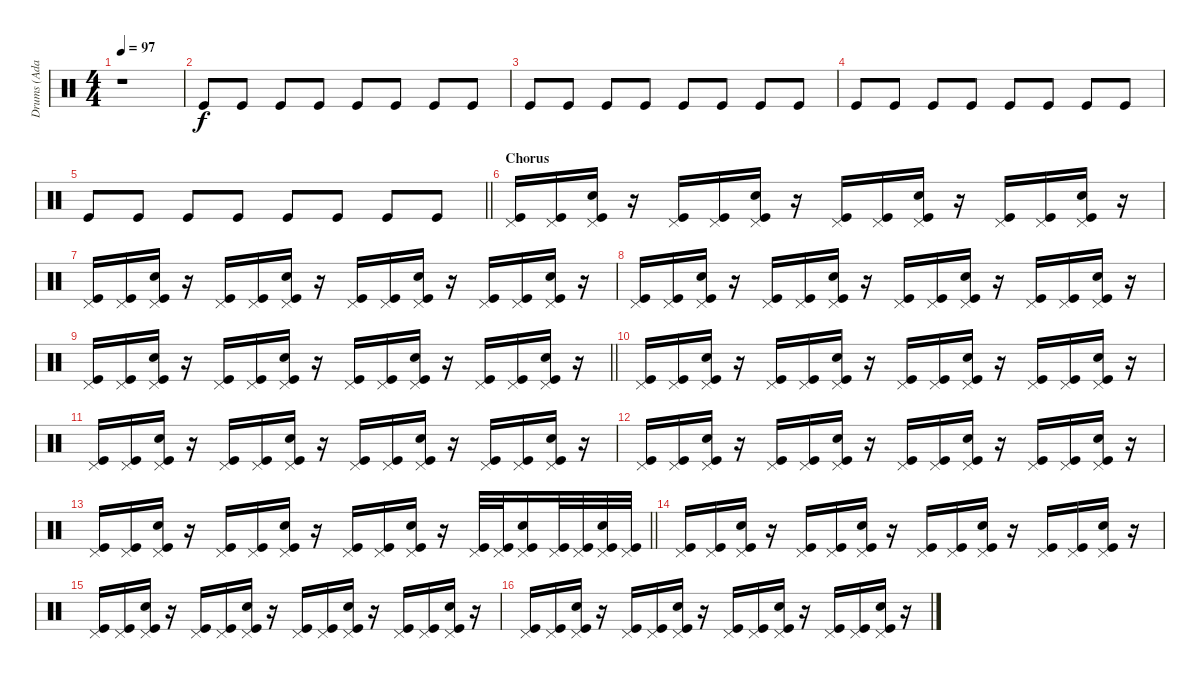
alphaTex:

\track ("Drums (Adam)" "Drums (Ada") {instrument percussion}
\staff {score}
\articulation defaults
\ts (4 4)
\tempo 97
\clef neutral
\ks c
r.1{dy f} |
"Kick (hit)".8 "Kick (hit)".8 "Kick (hit)".8 "Kick (hit)".8 "Kick (hit)".8 "Kick (hit)".8 "Kick (hit)".8 "Kick (hit)".8 |
"Kick (hit)".8 "Kick (hit)".8 "Kick (hit)".8 "Kick (hit)".8 "Kick (hit)".8 "Kick (hit)".8 "Kick (hit)".8 "Kick (hit)".8 |
"Kick (hit)".8 "Kick (hit)".8 "Kick (hit)".8 "Kick (hit)".8 "Kick (hit)".8 "Kick (hit)".8 "Kick (hit)".8 "Kick (hit)".8 |
\barLineRight lightlight "Kick (hit)".8 "Kick (hit)".8 "Kick (hit)".8 "Kick (hit)".8 "Kick (hit)".8 "Kick (hit)".8 "Kick (hit)".8 "Kick (hit)".8
|
\section ("" "Chorus")
("Kick (hit)" "Pedal Hi-Hat (hit)").16 ("Kick (hit)" "Pedal Hi-Hat (hit)").16 ("Kick (hit)" "Pedal Hi-Hat (hit)" "Snare (hit) 2").16 r.16 ("Kick (hit)" "Pedal Hi-Hat (hit)").16 ("Kick (hit)" "Pedal Hi-Hat (hit)").16 ("Kick (hit)" "Pedal Hi-Hat (hit)" "Snare (hit) 2").16 r.16 ("Kick (hit)" "Pedal Hi-Hat (hit)").16 ("Kick (hit)" "Pedal Hi-Hat (hit)").16 ("Kick (hit)" "Pedal Hi-Hat (hit)" "Snare (hit) 2").16 r.16 ("Kick (hit)" "Pedal Hi-Hat (hit)").16 ("Kick (hit)" "Pedal Hi-Hat (hit)").16 ("Kick (hit)" "Pedal Hi-Hat (hit)" "Snare (hit) 2").16 r.16 |
("Kick (hit)" "Pedal Hi-Hat (hit)").16 ("Kick (hit)" "Pedal Hi-Hat (hit)").16 ("Kick (hit)" "Pedal Hi-Hat (hit)" "Snare (hit) 2").16 r.16 ("Kick (hit)" "Pedal Hi-Hat (hit)").16 ("Kick (hit)" "Pedal Hi-Hat (hit)").16 ("Kick (hit)" "Pedal Hi-Hat (hit)" "Snare (hit) 2").16 r.16 ("Kick (hit)" "Pedal Hi-Hat (hit)").16 ("Kick (hit)" "Pedal Hi-Hat (hit)").16 ("Kick (hit)" "Pedal Hi-Hat (hit)" "Snare (hit) 2").16 r.16 ("Kick (hit)" "Pedal Hi-Hat (hit)").16 ("Kick (hit)" "Pedal Hi-Hat (hit)").16 ("Kick (hit)" "Pedal Hi-Hat (hit)" "Snare (hit) 2").16 r.16 |
("Kick (hit)" "Pedal Hi-Hat (hit)").16 ("Kick (hit)" "Pedal Hi-Hat (hit)").16 ("Kick (hit)" "Pedal Hi-Hat (hit)" "Snare (hit) 2").16 r.16 ("Kick (hit)" "Pedal Hi-Hat (hit)").16 ("Kick (hit)" "Pedal Hi-Hat (hit)").16 ("Kick (hit)" "Pedal Hi-Hat (hit)" "Snare (hit) 2").16 r.16 ("Kick (hit)" "Pedal Hi-Hat (hit)").16 ("Kick (hit)" "Pedal Hi-Hat (hit)").16 ("Kick (hit)" "Pedal Hi-Hat (hit)" "Snare (hit) 2").16 r.16 ("Kick (hit)" "Pedal Hi-Hat (hit)").16 ("Kick (hit)" "Pedal Hi-Hat (hit)").16 ("Kick (hit)" "Pedal Hi-Hat (hit)" "Snare (hit) 2").16 r.16 |
\barLineRight lightlight
("Kick (hit)" "Pedal Hi-Hat (hit)").16 ("Kick (hit)" "Pedal Hi-Hat (hit)").16 ("Kick (hit)" "Pedal Hi-Hat (hit)" "Snare (hit) 2").16 r.16 ("Kick (hit)" "Pedal Hi-Hat (hit)").16 ("Kick (hit)" "Pedal Hi-Hat (hit)").16 ("Kick (hit)" "Pedal Hi-Hat (hit)" "Snare (hit) 2").16 r.16 ("Kick (hit)" "Pedal Hi-Hat (hit)").16 ("Kick (hit)" "Pedal Hi-Hat (hit)").16 ("Kick (hit)" "Pedal Hi-Hat (hit)" "Snare (hit) 2").16 r.16 ("Kick (hit)" "Pedal Hi-Hat (hit)").16 ("Kick (hit)" "Pedal Hi-Hat (hit)").16 ("Kick (hit)" "Pedal Hi-Hat (hit)" "Snare (hit) 2").16 r.16 |
("Kick (hit)" "Pedal Hi-Hat (hit)").16 ("Kick (hit)" "Pedal Hi-Hat (hit)").16 ("Kick (hit)" "Pedal Hi-Hat (hit)" "Snare (hit) 2").16 r.16 ("Kick (hit)" "Pedal Hi-Hat (hit)").16 ("Kick (hit)" "Pedal Hi-Hat (hit)").16 ("Kick (hit)" "Pedal Hi-Hat (hit)" "Snare (hit) 2").16 r.16 ("Kick (hit)" "Pedal Hi-Hat (hit)").16 ("Kick (hit)" "Pedal Hi-Hat (hit)").16 ("Kick (hit)" "Pedal Hi-Hat (hit)" "Snare (hit) 2").16 r.16 ("Kick (hit)" "Pedal Hi-Hat (hit)").16 ("Kick (hit)" "Pedal Hi-Hat (hit)").16 ("Kick (hit)" "Pedal Hi-Hat (hit)" "Snare (hit) 2").16 r.16 |
("Kick (hit)" "Pedal Hi-Hat (hit)").16 ("Kick (hit)" "Pedal Hi-Hat (hit)").16 ("Kick (hit)" "Pedal Hi-Hat (hit)" "Snare (hit) 2").16 r.16 ("Kick (hit)" "Pedal Hi-Hat (hit)").16 ("Kick (hit)" "Pedal Hi-Hat (hit)").16 ("Kick (hit)" "Pedal Hi-Hat (hit)" "Snare (hit) 2").16 r.16 ("Kick (hit)" "Pedal Hi-Hat (hit)").16 ("Kick (hit)" "Pedal Hi-Hat (hit)").16 ("Kick (hit)" "Pedal Hi-Hat (hit)" "Snare (hit) 2").16 r.16 ("Kick (hit)" "Pedal Hi-Hat (hit)").16 ("Kick (hit)" "Pedal Hi-Hat (hit)").16 ("Kick (hit)" "Pedal Hi-Hat (hit)" "Snare (hit) 2").16 r.16 |
("Kick (hit)" "Pedal Hi-Hat (hit)").16 ("Kick (hit)" "Pedal Hi-Hat (hit)").16 ("Kick (hit)" "Pedal Hi-Hat (hit)" "Snare (hit) 2").16 r.16 ("Kick (hit)" "Pedal Hi-Hat (hit)").16 ("Kick (hit)" "Pedal Hi-Hat (hit)").16 ("Kick (hit)" "Pedal Hi-Hat (hit)" "Snare (hit) 2").16 r.16 ("Kick (hit)" "Pedal Hi-Hat (hit)").16 ("Kick (hit)" "Pedal Hi-Hat (hit)").16 ("Kick (hit)" "Pedal Hi-Hat (hit)" "Snare (hit) 2").16 r.16 ("Kick (hit)" "Pedal Hi-Hat (hit)").16 ("Kick (hit)" "Pedal Hi-Hat (hit)").16 ("Kick (hit)" "Pedal Hi-Hat (hit)" "Snare (hit) 2").16 r.16 |
\barLineRight lightlight
("Kick (hit)" "Pedal Hi-Hat (hit)").16 ("Kick (hit)" "Pedal Hi-Hat (hit)").16 ("Kick (hit)" "Pedal Hi-Hat (hit)" "Snare (hit) 2").16 r.16 ("Kick (hit)" "Pedal Hi-Hat (hit)").16 ("Kick (hit)" "Pedal Hi-Hat (hit)").16 ("Kick (hit)" "Pedal Hi-Hat (hit)" "Snare (hit) 2").16 r.16 ("Kick (hit)" "Pedal Hi-Hat (hit)").16 ("Kick (hit)" "Pedal Hi-Hat (hit)").16 ("Kick (hit)" "Pedal Hi-Hat (hit)" "Snare (hit) 2").16 r.16 ("Kick (hit)" "Pedal Hi-Hat (hit)").32 ("Kick (hit)" "Pedal Hi-Hat (hit)").32 ("Kick (hit)" "Pedal Hi-Hat (hit)" "Snare (hit) 2").16 ("Kick (hit)" "Pedal Hi-Hat (hit)").32 ("Kick (hit)" "Pedal Hi-Hat (hit)").32 ("Kick (hit)" "Pedal Hi-Hat (hit)" "Snare (hit) 2").32 ("Kick (hit)" "Pedal Hi-Hat (hit)").32 |
("Kick (hit)" "Pedal Hi-Hat (hit)").16 ("Kick (hit)" "Pedal Hi-Hat (hit)").16 ("Kick (hit)" "Pedal Hi-Hat (hit)" "Snare (hit) 2").16 r.16 ("Kick (hit)" "Pedal Hi-Hat (hit)").16 ("Kick (hit)" "Pedal Hi-Hat (hit)").16 ("Kick (hit)" "Pedal Hi-Hat (hit)" "Snare (hit) 2").16 r.16 ("Kick (hit)" "Pedal Hi-Hat (hit)").16 ("Kick (hit)" "Pedal Hi-Hat (hit)").16 ("Kick (hit)" "Pedal Hi-Hat (hit)" "Snare (hit) 2").16 r.16 ("Kick (hit)" "Pedal Hi-Hat (hit)").16 ("Kick (hit)" "Pedal Hi-Hat (hit)").16 ("Kick (hit)" "Pedal Hi-Hat (hit)" "Snare (hit) 2").16 r.16 |
("Kick (hit)" "Pedal Hi-Hat (hit)").16 ("Kick (hit)" "Pedal Hi-Hat (hit)").16 ("Kick (hit)" "Pedal Hi-Hat (hit)" "Snare (hit) 2").16 r.16 ("Kick (hit)" "Pedal Hi-Hat (hit)").16 ("Kick (hit)" "Pedal Hi-Hat (hit)").16 ("Kick (hit)" "Pedal Hi-Hat (hit)" "Snare (hit) 2").16 r.16 ("Kick (hit)" "Pedal Hi-Hat (hit)").16 ("Kick (hit)" "Pedal Hi-Hat (hit)").16 ("Kick (hit)" "Pedal Hi-Hat (hit)" "Snare (hit) 2").16 r.16 ("Kick (hit)" "Pedal Hi-Hat (hit)").16 ("Kick (hit)" "Pedal Hi-Hat (hit)").16 ("Kick (hit)" "Pedal Hi-Hat (hit)" "Snare (hit) 2").16 r.16 |
("Kick (hit)" "Pedal Hi-Hat (hit)").16 ("Kick (hit)" "Pedal Hi-Hat (hit)").16 ("Kick (hit)" "Pedal Hi-Hat (hit)" "Snare (hit) 2").16 r.16 ("Kick (hit)" "Pedal Hi-Hat (hit)").16 ("Kick (hit)" "Pedal Hi-Hat (hit)").16 ("Kick (hit)" "Pedal Hi-Hat (hit)" "Snare (hit) 2").16 r.16 ("Kick (hit)" "Pedal Hi-Hat (hit)").16 ("Kick (hit)" "Pedal Hi-Hat (hit)").16 ("Kick (hit)" "Pedal Hi-Hat (hit)" "Snare (hit) 2").16 r.16 ("Kick (hit)" "Pedal Hi-Hat (hit)").16 ("Kick (hit)" "Pedal Hi-Hat (hit)").16 ("Kick (hit)" "Pedal Hi-Hat (hit)" "Snare (hit) 2").16 r.16
